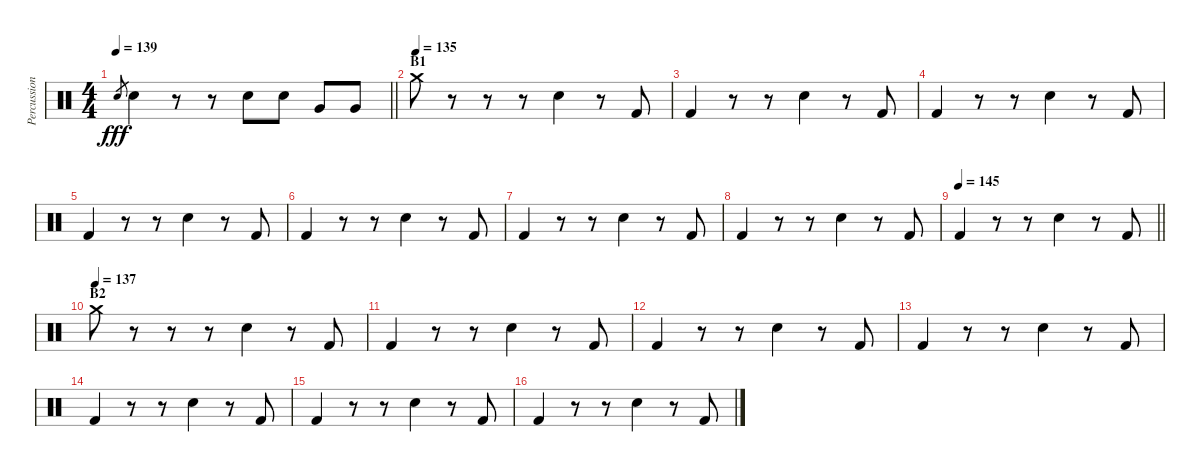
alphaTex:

\track ("Percussion" "Percussion") {instrument percussion}
\staff {score}
\articulation defaults
\ts (4 4)
\tempo 139
\clef neutral
\barLineRight lightlight
\ks c "Electric Snare (hit)".8{gr dy fff} "Electric Snare (hit)".4
r.8 r.8 "Electric Snare (hit)".8 "Electric Snare (hit)".8 "Very Low Tom (hit)".8 "Very Low Tom (hit)".8 |
\section ("" "B1")
\tempo (135)
"Crash medium (hit)".8 r.8 r.8 r.8 "Electric Snare (hit)".4 r.8 "Kick (hit) 2".8 |
"Kick (hit) 2".4 r.8 r.8 "Electric Snare (hit)".4 r.8 "Kick (hit) 2".8 |
"Kick (hit) 2".4 r.8 r.8 "Electric Snare (hit)".4 r.8 "Kick (hit) 2".8 |
"Kick (hit) 2".4 r.8 r.8 "Electric Snare (hit)".4 r.8 "Kick (hit) 2".8 |
"Kick (hit) 2".4 r.8 r.8 "Electric Snare (hit)".4 r.8 "Kick (hit) 2".8 |
"Kick (hit) 2".4 r.8 r.8 "Electric Snare (hit)".4 r.8 "Kick (hit) 2".8 |
"Kick (hit) 2".4 r.8 r.8 "Electric Snare (hit)".4 r.8 "Kick (hit) 2".8 |
\tempo 145
\barLineRight lightlight "Kick (hit) 2".4
r.8 r.8 "Electric Snare (hit)".4 r.8 "Kick (hit) 2".8 |
\section ("" "B2")
\tempo (137)
"Crash medium (hit)".8 r.8 r.8 r.8 "Electric Snare (hit)".4 r.8 "Kick (hit) 2".8 |
"Kick (hit) 2".4 r.8 r.8 "Electric Snare (hit)".4 r.8 "Kick (hit) 2".8 |
"Kick (hit) 2".4 r.8 r.8 "Electric Snare (hit)".4 r.8 "Kick (hit) 2".8 |
"Kick (hit) 2".4 r.8 r.8 "Electric Snare (hit)".4 r.8 "Kick (hit) 2".8 |
"Kick (hit) 2".4 r.8 r.8 "Electric Snare (hit)".4 r.8 "Kick (hit) 2".8 |
"Kick (hit) 2".4 r.8 r.8 "Electric Snare (hit)".4 r.8 "Kick (hit) 2".8 |
"Kick (hit) 2".4 r.8 r.8 "Electric Snare (hit)".4 r.8 "Kick (hit) 2".8
